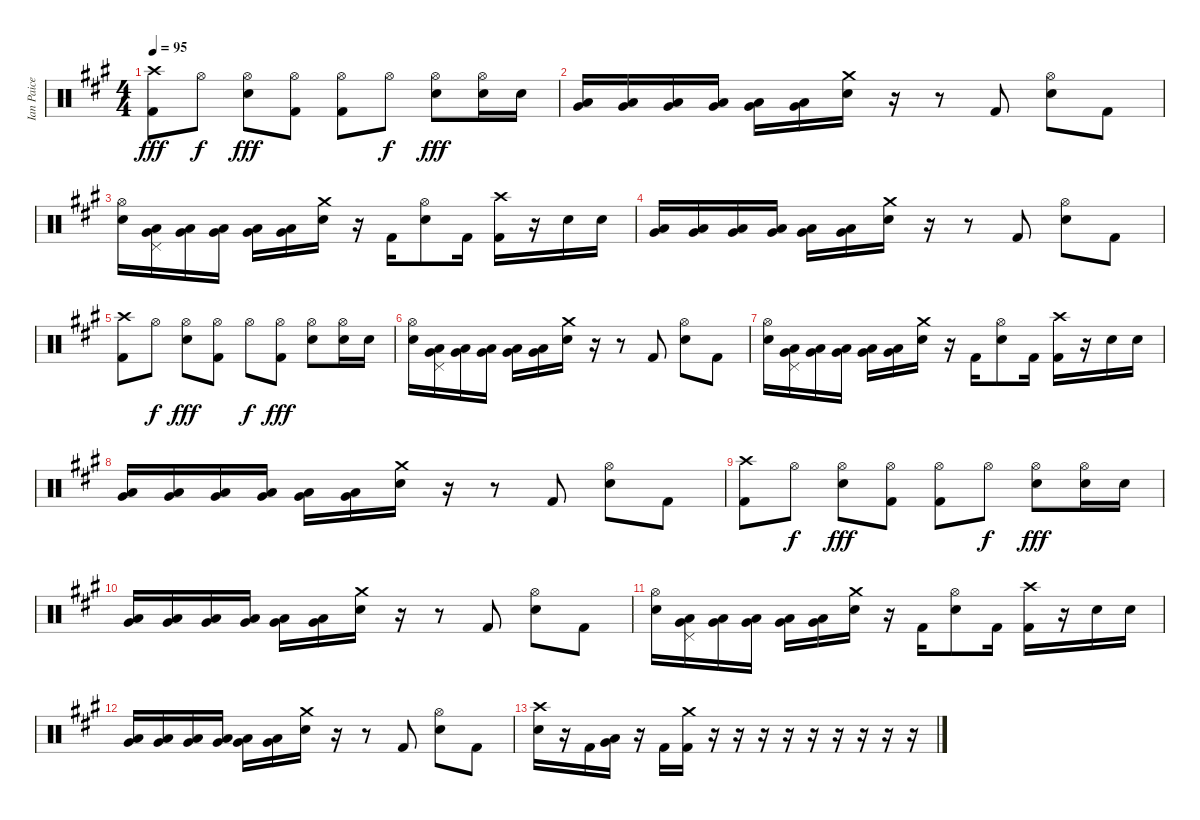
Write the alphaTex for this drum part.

\track ("Ian Paice" "Ian Paice") {instrument percussion}
\staff {score}
\articulation defaults
\ts (4 4)
\tempo 95
\clef neutral
\ks f#minor
("Crash high (hit)" "Kick (hit) 2").8{dy fff} "Hi-Hat (open)".8{dy f} ("Hi-Hat (open)" "Snare (hit) 2").8{dy fff} ("Hi-Hat (open)" "Kick (hit) 2").8 ("Hi-Hat (open)" "Kick (hit) 2").8 "Hi-Hat (open)".8{dy f} ("Hi-Hat (open)" "Snare (hit) 2").8{dy fff} ("Hi-Hat (open)" "Snare (hit) 2").16 "Snare (hit) 2".16 |
("Low Floor Tom (hit)" "Very Low Tom (hit)").16 ("Low Floor Tom (hit)" "Very Low Tom (hit)").16 ("Low Floor Tom (hit)" "Very Low Tom (hit)").16 ("Low Floor Tom (hit)" "Very Low Tom (hit)").16 ("Low Floor Tom (hit)" "Very Low Tom (hit)").16 ("Low Floor Tom (hit)" "Very Low Tom (hit)").16 ("Crash medium (hit)" "Snare (hit) 2").16 r.16 r.8 "Kick (hit) 2".8 ("Hi-Hat (open)" "Snare (hit) 2").8 "Kick (hit) 2".8 |
("Hi-Hat (open)" "Snare (hit) 2").16 ("Pedal Hi-Hat (hit)" "Low Floor Tom (hit)" "Very Low Tom (hit)").16 ("Low Floor Tom (hit)" "Very Low Tom (hit)").16 ("Low Floor Tom (hit)" "Very Low Tom (hit)").16 ("Low Floor Tom (hit)" "Very Low Tom (hit)").16 ("Low Floor Tom (hit)" "Very Low Tom (hit)").16 ("Crash medium (hit)" "Snare (hit) 2").16 r.16 "Kick (hit) 2".16 ("Hi-Hat (open)" "Snare (hit) 2").8 "Kick (hit) 2".16 ("Crash high (hit)" "Kick (hit) 2").16 r.16 "Snare (hit) 2".16 "Snare (hit) 2".16 |
("Low Floor Tom (hit)" "Very Low Tom (hit)").16 ("Low Floor Tom (hit)" "Very Low Tom (hit)").16 ("Low Floor Tom (hit)" "Very Low Tom (hit)").16 ("Low Floor Tom (hit)" "Very Low Tom (hit)").16 ("Low Floor Tom (hit)" "Very Low Tom (hit)").16 ("Low Floor Tom (hit)" "Very Low Tom (hit)").16 ("Crash medium (hit)" "Snare (hit) 2").16 r.16 r.8 "Kick (hit) 2".8 ("Hi-Hat (open)" "Snare (hit) 2").8 "Kick (hit) 2".8 |
("Crash high (hit)" "Kick (hit) 2").8 "Hi-Hat (open)".8{dy f} ("Hi-Hat (open)" "Snare (hit) 2").8{dy fff} ("Hi-Hat (open)" "Kick (hit) 2").8 "Hi-Hat (open)".8{dy f} ("Hi-Hat (open)" "Kick (hit) 2").8{dy fff} ("Hi-Hat (open)" "Snare (hit) 2").8 ("Hi-Hat (open)" "Snare (hit) 2").16 "Snare (hit) 2".16 |
("Hi-Hat (open)" "Snare (hit) 2").16 ("Pedal Hi-Hat (hit)" "Low Floor Tom (hit)" "Very Low Tom (hit)").16 ("Low Floor Tom (hit)" "Very Low Tom (hit)").16 ("Low Floor Tom (hit)" "Very Low Tom (hit)").16 ("Low Floor Tom (hit)" "Very Low Tom (hit)").16 ("Low Floor Tom (hit)" "Very Low Tom (hit)").16 ("Crash medium (hit)" "Snare (hit) 2").16 r.16 r.8 "Kick (hit) 2".8 ("Hi-Hat (open)" "Snare (hit) 2").8 "Kick (hit) 2".8 |
("Hi-Hat (open)" "Snare (hit) 2").16 ("Pedal Hi-Hat (hit)" "Low Floor Tom (hit)" "Very Low Tom (hit)").16 ("Low Floor Tom (hit)" "Very Low Tom (hit)").16 ("Low Floor Tom (hit)" "Very Low Tom (hit)").16 ("Low Floor Tom (hit)" "Very Low Tom (hit)").16 ("Low Floor Tom (hit)" "Very Low Tom (hit)").16 ("Crash medium (hit)" "Snare (hit) 2").16 r.16 "Kick (hit) 2".16 ("Hi-Hat (open)" "Snare (hit) 2").8 "Kick (hit) 2".16 ("Crash high (hit)" "Kick (hit) 2").16 r.16 "Snare (hit) 2".16 "Snare (hit) 2".16 |
("Low Floor Tom (hit)" "Very Low Tom (hit)").16 ("Low Floor Tom (hit)" "Very Low Tom (hit)").16 ("Low Floor Tom (hit)" "Very Low Tom (hit)").16 ("Low Floor Tom (hit)" "Very Low Tom (hit)").16 ("Low Floor Tom (hit)" "Very Low Tom (hit)").16 ("Low Floor Tom (hit)" "Very Low Tom (hit)").16 ("Crash medium (hit)" "Snare (hit) 2").16 r.16 r.8 "Kick (hit) 2".8 ("Hi-Hat (open)" "Snare (hit) 2").8 "Kick (hit) 2".8 |
("Crash high (hit)" "Kick (hit) 2").8 "Hi-Hat (open)".8{dy f} ("Hi-Hat (open)" "Snare (hit) 2").8{dy fff} ("Hi-Hat (open)" "Kick (hit) 2").8 ("Hi-Hat (open)" "Kick (hit) 2").8 "Hi-Hat (open)".8{dy f} ("Hi-Hat (open)" "Snare (hit) 2").8{dy fff} ("Hi-Hat (open)" "Snare (hit) 2").16 "Snare (hit) 2".16 |
("Low Floor Tom (hit)" "Very Low Tom (hit)").16 ("Low Floor Tom (hit)" "Very Low Tom (hit)").16 ("Low Floor Tom (hit)" "Very Low Tom (hit)").16 ("Low Floor Tom (hit)" "Very Low Tom (hit)").16 ("Low Floor Tom (hit)" "Very Low Tom (hit)").16 ("Low Floor Tom (hit)" "Very Low Tom (hit)").16 ("Crash medium (hit)" "Snare (hit) 2").16 r.16 r.8 "Kick (hit) 2".8 ("Hi-Hat (open)" "Snare (hit) 2").8 "Kick (hit) 2".8 |
("Hi-Hat (open)" "Snare (hit) 2").16 ("Pedal Hi-Hat (hit)" "Low Floor Tom (hit)" "Very Low Tom (hit)").16 ("Low Floor Tom (hit)" "Very Low Tom (hit)").16 ("Low Floor Tom (hit)" "Very Low Tom (hit)").16 ("Low Floor Tom (hit)" "Very Low Tom (hit)").16 ("Low Floor Tom (hit)" "Very Low Tom (hit)").16 ("Crash medium (hit)" "Snare (hit) 2").16 r.16 "Kick (hit) 2".16 ("Hi-Hat (open)" "Snare (hit) 2").8 "Kick (hit) 2".16 ("Crash high (hit)" "Kick (hit) 2").16 r.16 "Snare (hit) 2".16 "Snare (hit) 2".16 |
("Low Floor Tom (hit)" "Very Low Tom (hit)").16 ("Low Floor Tom (hit)" "Very Low Tom (hit)").16 ("Low Floor Tom (hit)" "Very Low Tom (hit)").16 ("Low Floor Tom (hit)" "Very Low Tom (hit)").16 ("Low Floor Tom (hit)" "Very Low Tom (hit)").16 ("Low Floor Tom (hit)" "Very Low Tom (hit)").16 ("Crash medium (hit)" "Snare (hit) 2").16 r.16 r.8 "Kick (hit) 2".8 ("Hi-Hat (open)" "Snare (hit) 2").8 "Kick (hit) 2".8 |
("Crash high (hit)" "Snare (hit) 2").16 r.16 "Kick (hit) 2".16 ("Low Floor Tom (hit)" "Very Low Tom (hit)").16 r.16 "Kick (hit) 2".16 ("Crash medium (hit)" "Kick (hit) 2").16 r.16 r.16 r.16 r.16 r.16 r.16 r.16 r.16 r.16
